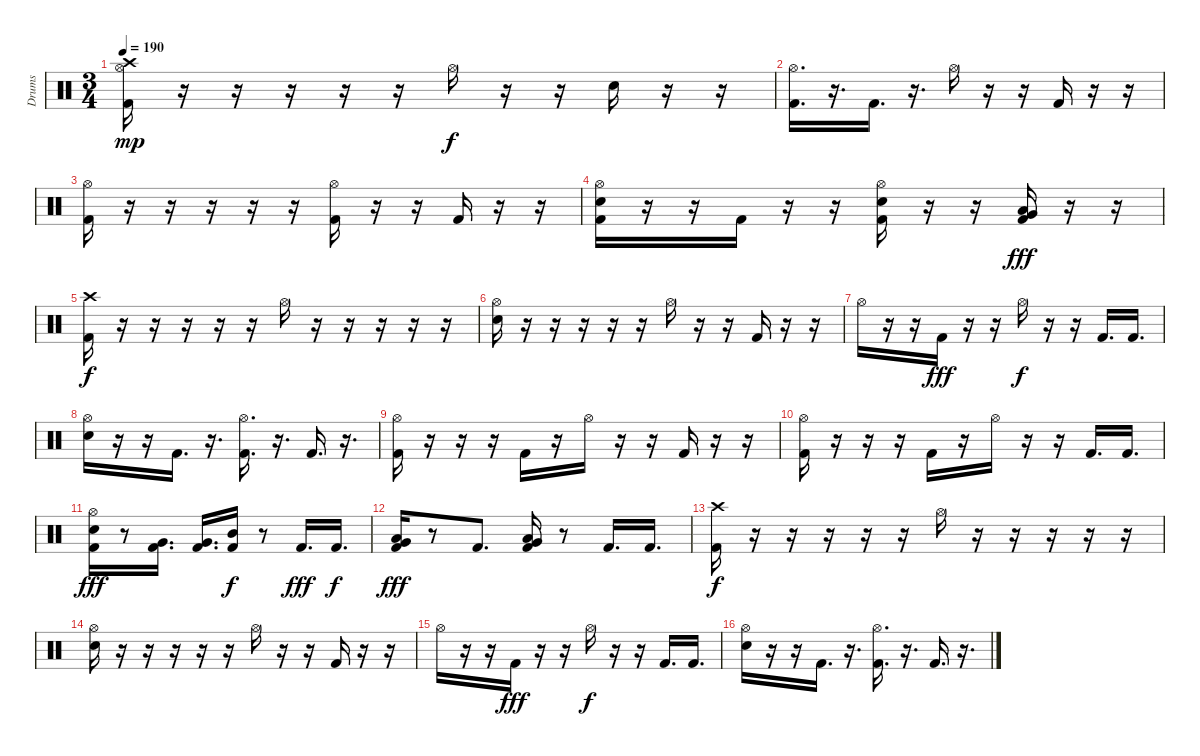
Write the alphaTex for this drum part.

\track ("Drums" "Drums") {instrument percussion}
\staff {score}
\articulation defaults
\ts (3 4)
\tempo 190
\clef neutral
\ks c
("Crash high (hit)" "Hi-Hat (open)" "Kick (hit) 2").16{dy mp} r.16 r.16 r.16 r.16 r.16 "Hi-Hat (open)".16{dy f} r.16 r.16 "Electric Snare (hit)".16 r.16 r.16 |
("Hi-Hat (open)" "Kick (hit) 2").16{d} r.16{d} "Kick (hit) 2".16{d} r.16{d} "Hi-Hat (open)".16 r.16 r.16 "Kick (hit) 2".16 r.16 r.16 |
("Hi-Hat (open)" "Kick (hit) 2").16 r.16 r.16 r.16 r.16 r.16 ("Hi-Hat (open)" "Kick (hit) 2").16 r.16 r.16 "Kick (hit) 2".16 r.16 r.16 |
("Hi-Hat (open)" "Electric Snare (hit)" "Kick (hit) 2").16 r.16 r.16 "Kick (hit) 2".16 r.16 r.16 ("Hi-Hat (open)" "Electric Snare (hit)" "Kick (hit) 2").16 r.16 r.16 ("Low Floor Tom (hit)" "Very Low Tom (hit)" "Kick (hit) 2").16{dy fff} r.16 r.16 |
("Crash high (hit)" "Kick (hit) 2").16{dy f} r.16 r.16 r.16 r.16 r.16 "Hi-Hat (open)".16 r.16 r.16 r.16 r.16 r.16 |
("Hi-Hat (open)" "Electric Snare (hit)").16 r.16 r.16 r.16 r.16 r.16 "Hi-Hat (open)".16 r.16 r.16 "Kick (hit) 2".16 r.16 r.16 |
"Hi-Hat (open)".16 r.16 r.16 "Kick (hit) 2".16{dy fff} r.16 r.16 "Hi-Hat (open)".16{dy f} r.16 r.16 "Kick (hit) 2".16{d} "Kick (hit) 2".16{d} |
("Hi-Hat (open)" "Electric Snare (hit)").16 r.16 r.16 "Kick (hit) 2".16{d} r.16{d} ("Hi-Hat (open)" "Kick (hit) 2").16{d} r.16{d} "Kick (hit) 2".16{d} r.16{d} |
("Hi-Hat (open)" "Kick (hit) 2").16 r.16 r.16 r.16 "Kick (hit) 2".16 r.16 "Hi-Hat (open)".16 r.16 r.16 "Kick (hit) 2".16 r.16 r.16 |
("Hi-Hat (open)" "Kick (hit) 2").16 r.16 r.16 r.16 "Kick (hit) 2".16 r.16 "Hi-Hat (open)".16 r.16 r.16 "Kick (hit) 2".16{d} "Kick (hit) 2".16{d} |
("Hi-Hat (open)" "Electric Snare (hit)" "Kick (hit) 2").16{dy fff} r.8 ("Very Low Tom (hit)" "Kick (hit) 2").16{d} ("Very Low Tom (hit)" "Kick (hit) 2").16{d} ("Mid Tom (hit)" "Kick (hit) 2").16{dy f} r.8 "Kick (hit) 2".16{d dy fff} "Kick (hit) 2".16{d dy f} |
("Very Low Tom (hit)" "Low Tom (hit)" "Kick (hit) 2").16{dy fff} r.8 "Kick (hit) 2".8{d} ("Low Floor Tom (hit)" "Very Low Tom (hit)" "Kick (hit) 2").16 r.8 "Kick (hit) 2".16{d} "Kick (hit) 2".16{d} |
("Crash high (hit)" "Kick (hit) 2").16{dy f} r.16 r.16 r.16 r.16 r.16 "Hi-Hat (open)".16 r.16 r.16 r.16 r.16 r.16 |
("Hi-Hat (open)" "Electric Snare (hit)").16 r.16 r.16 r.16 r.16 r.16 "Hi-Hat (open)".16 r.16 r.16 "Kick (hit) 2".16 r.16 r.16 |
"Hi-Hat (open)".16 r.16 r.16 "Kick (hit) 2".16{dy fff} r.16 r.16 "Hi-Hat (open)".16{dy f} r.16 r.16 "Kick (hit) 2".16{d} "Kick (hit) 2".16{d} |
("Hi-Hat (open)" "Electric Snare (hit)").16 r.16 r.16 "Kick (hit) 2".16{d} r.16{d} ("Hi-Hat (open)" "Kick (hit) 2").16{d} r.16{d} "Kick (hit) 2".16{d} r.16{d}
